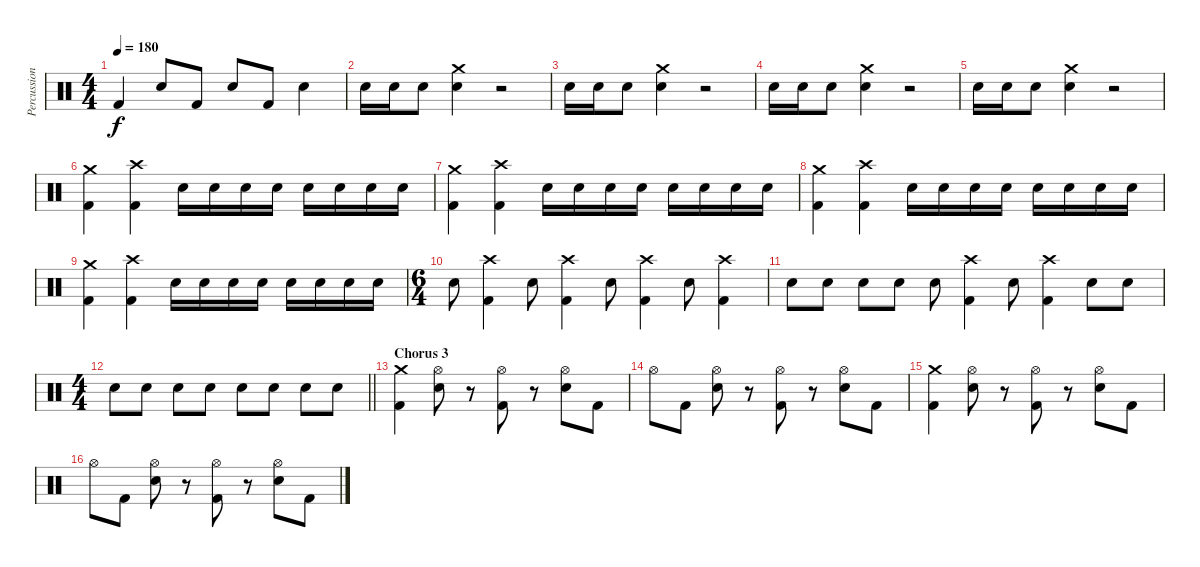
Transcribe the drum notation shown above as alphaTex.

\track ("Percussion" "Percussion") {instrument percussion}
\staff {score}
\articulation defaults
\ts (4 4)
\tempo 180
\clef neutral
\ks c "Kick (hit) 2".4{dy f} "Snare (hit) 2".8 "Kick (hit) 2".8 "Snare (hit) 2".8 "Kick (hit) 2".8 "Snare (hit) 2".4
|
"Snare (hit) 2".16 "Snare (hit) 2".16 "Snare (hit) 2".8 ("Crash medium (hit)" "Snare (hit) 2").4 r.2 |
"Snare (hit) 2".16 "Snare (hit) 2".16 "Snare (hit) 2".8 ("Crash medium (hit)" "Snare (hit) 2").4 r.2 |
"Snare (hit) 2".16 "Snare (hit) 2".16 "Snare (hit) 2".8 ("Crash medium (hit)" "Snare (hit) 2").4 r.2 |
"Snare (hit) 2".16 "Snare (hit) 2".16 "Snare (hit) 2".8 ("Crash medium (hit)" "Snare (hit) 2").4 r.2 |
("Crash medium (hit)" "Kick (hit) 2").4 ("Crash high (hit)" "Kick (hit) 2").4 "Snare (hit) 2".16 "Snare (hit) 2".16 "Snare (hit) 2".16 "Snare (hit) 2".16 "Snare (hit) 2".16 "Snare (hit) 2".16 "Snare (hit) 2".16 "Snare (hit) 2".16 |
("Crash medium (hit)" "Kick (hit) 2").4 ("Crash high (hit)" "Kick (hit) 2").4 "Snare (hit) 2".16 "Snare (hit) 2".16 "Snare (hit) 2".16 "Snare (hit) 2".16 "Snare (hit) 2".16 "Snare (hit) 2".16 "Snare (hit) 2".16 "Snare (hit) 2".16 |
("Crash medium (hit)" "Kick (hit) 2").4 ("Crash high (hit)" "Kick (hit) 2").4 "Snare (hit) 2".16 "Snare (hit) 2".16 "Snare (hit) 2".16 "Snare (hit) 2".16 "Snare (hit) 2".16 "Snare (hit) 2".16 "Snare (hit) 2".16 "Snare (hit) 2".16 |
("Crash medium (hit)" "Kick (hit) 2").4 ("Crash high (hit)" "Kick (hit) 2").4 "Snare (hit) 2".16 "Snare (hit) 2".16 "Snare (hit) 2".16 "Snare (hit) 2".16 "Snare (hit) 2".16 "Snare (hit) 2".16 "Snare (hit) 2".16 "Snare (hit) 2".16 |
\ts (6 4)
"Snare (hit) 2".8 ("Crash high (hit)" "Kick (hit) 2").4 "Snare (hit) 2".8 ("Crash high (hit)" "Kick (hit) 2").4 "Snare (hit) 2".8 ("Crash high (hit)" "Kick (hit) 2").4 "Snare (hit) 2".8 ("Crash high (hit)" "Kick (hit) 2").4 |
"Snare (hit) 2".8 "Snare (hit) 2".8 "Snare (hit) 2".8 "Snare (hit) 2".8 "Snare (hit) 2".8 ("Crash high (hit)" "Kick (hit) 2").4 "Snare (hit) 2".8 ("Crash high (hit)" "Kick (hit) 2").4 "Snare (hit) 2".8 "Snare (hit) 2".8 |
\ts (4 4)
\barLineRight lightlight "Snare (hit) 2".8 "Snare (hit) 2".8 "Snare (hit) 2".8 "Snare (hit) 2".8 "Snare (hit) 2".8 "Snare (hit) 2".8 "Snare (hit) 2".8 "Snare (hit) 2".8
|
\section ("" "Chorus 3")
("Crash medium (hit)" "Kick (hit) 2").4 ("Hi-Hat (open)" "Snare (hit) 2").8 r.8 ("Hi-Hat (open)" "Kick (hit) 2").8 r.8 ("Hi-Hat (open)" "Snare (hit) 2").8 "Kick (hit) 2".8 |
"Hi-Hat (open)".8 "Kick (hit) 2".8 ("Hi-Hat (open)" "Snare (hit) 2").8 r.8 ("Hi-Hat (open)" "Kick (hit) 2").8 r.8 ("Hi-Hat (open)" "Snare (hit) 2").8 "Kick (hit) 2".8 |
("Crash medium (hit)" "Kick (hit) 2").4 ("Hi-Hat (open)" "Snare (hit) 2").8 r.8 ("Hi-Hat (open)" "Kick (hit) 2").8 r.8 ("Hi-Hat (open)" "Snare (hit) 2").8 "Kick (hit) 2".8 |
"Hi-Hat (open)".8 "Kick (hit) 2".8 ("Hi-Hat (open)" "Snare (hit) 2").8 r.8 ("Hi-Hat (open)" "Kick (hit) 2").8 r.8 ("Hi-Hat (open)" "Snare (hit) 2").8 "Kick (hit) 2".8
